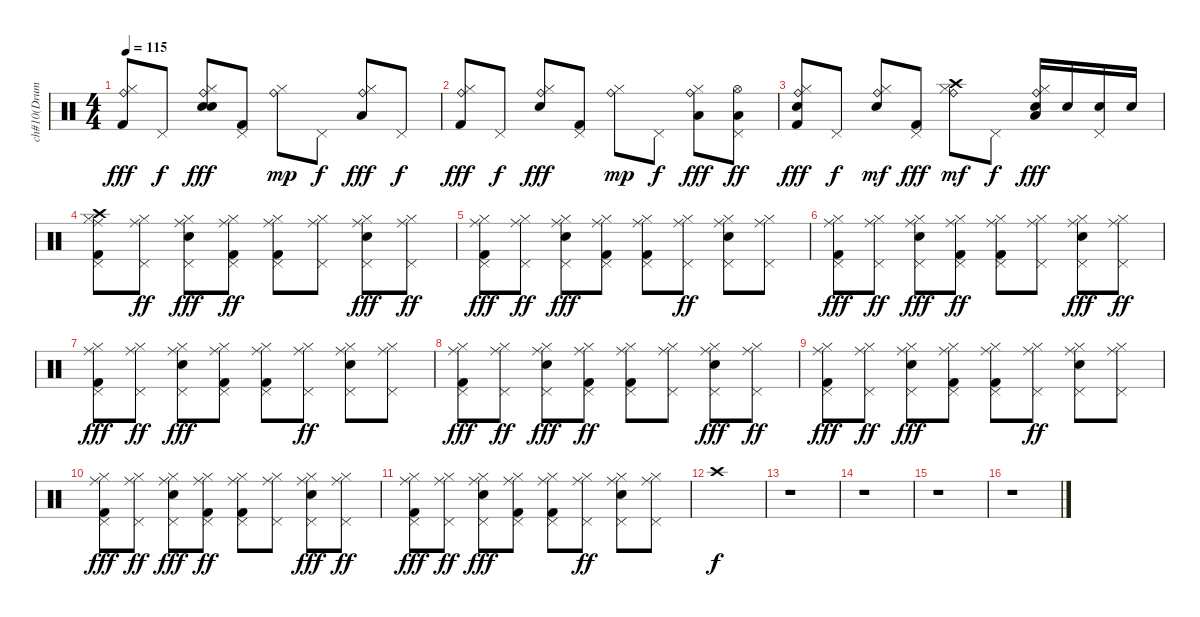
\track ("ch#10(Drums)" "ch#10(Drum") {instrument percussion}
\staff {score}
\articulation defaults
\ts (4 4)
\tempo 115
\clef neutral
\ks c
("Ride (bell)" "Hi-Hat (closed)" "Kick (hit) 2").8{dy fff} "Pedal Hi-Hat (hit)".8{dy f} ("Electric Snare (hit)" "Ride (bell)" "Hi-Hat (closed)" "Electric Snare (hit)").8{dy fff} ("Kick (hit) 2" "Pedal Hi-Hat (hit)").8 ("Ride (bell)" "Hi-Hat (closed)").8{dy mp} "Pedal Hi-Hat (hit)".8{dy f} ("Ride (bell)" "Low Floor Tom (hit)" "Hi-Hat (closed)").8{dy fff} "Pedal Hi-Hat (hit)".8{dy f} |
("Ride (bell)" "Hi-Hat (closed)" "Kick (hit) 2").8{dy fff} "Pedal Hi-Hat (hit)".8{dy f} ("Ride (bell)" "Hi-Hat (closed)" "Electric Snare (hit)").8{dy fff} ("Pedal Hi-Hat (hit)" "Kick (hit) 2").8 ("Ride (bell)" "Hi-Hat (closed)").8{dy mp} "Pedal Hi-Hat (hit)".8{dy f} ("Ride (bell)" "Low Floor Tom (hit)" "Hi-Hat (closed)").8{dy fff} ("Hi-Hat (open)" "Low Floor Tom (hit)" "Pedal Hi-Hat (hit)").8{dy ff} |
("Electric Snare (hit)" "Ride (bell)" "Hi-Hat (closed)" "Kick (hit) 2").8{dy fff} "Pedal Hi-Hat (hit)".8{dy f} ("Electric Snare (hit)" "Ride (bell)" "Hi-Hat (closed)").8{dy mf} ("Kick (hit) 2" "Pedal Hi-Hat (hit)").8{dy fff} ("Crash high (hit)" "Ride (bell)" "Hi-Hat (closed)").8{dy mf} "Pedal Hi-Hat (hit)".8{dy f} ("Electric Snare (hit)" "Ride (bell)" "Low Floor Tom (hit)" "Hi-Hat (closed)").16{dy fff} "Electric Snare (hit)".16 ("Electric Snare (hit)" "Pedal Hi-Hat (hit)").16 "Electric Snare (hit)".16 |
("Crash high (hit)" "Hi-Hat (closed)" "Kick (hit) 2" "Ride (middle)" "Pedal Hi-Hat (hit)").8 ("Pedal Hi-Hat (hit)" "Hi-Hat (closed)" "Ride (middle)").8{dy ff} ("Pedal Hi-Hat (hit)" "Hi-Hat (closed)" "Ride (middle)" "Electric Snare (hit)").8{dy fff} ("Ride (middle)" "Kick (hit) 2" "Hi-Hat (closed)" "Pedal Hi-Hat (hit)").8{dy ff} ("Pedal Hi-Hat (hit)" "Ride (middle)" "Kick (hit) 2" "Hi-Hat (closed)").8 ("Ride (middle)" "Hi-Hat (closed)" "Pedal Hi-Hat (hit)").8 ("Pedal Hi-Hat (hit)" "Ride (middle)" "Hi-Hat (closed)" "Electric Snare (hit)").8{dy fff} ("Ride (middle)" "Hi-Hat (closed)" "Pedal Hi-Hat (hit)").8{dy ff} |
("Pedal Hi-Hat (hit)" "Ride (middle)" "Hi-Hat (closed)" "Kick (hit) 2").8{dy fff} ("Pedal Hi-Hat (hit)" "Ride (middle)" "Hi-Hat (closed)").8{dy ff} ("Pedal Hi-Hat (hit)" "Hi-Hat (closed)" "Electric Snare (hit)" "Ride (middle)").8{dy fff} ("Pedal Hi-Hat (hit)" "Hi-Hat (closed)" "Kick (hit) 2" "Ride (middle)").8 ("Pedal Hi-Hat (hit)" "Hi-Hat (closed)" "Kick (hit) 2" "Ride (middle)").8 ("Pedal Hi-Hat (hit)" "Hi-Hat (closed)" "Ride (middle)").8{dy ff} ("Pedal Hi-Hat (hit)" "Electric Snare (hit)" "Hi-Hat (closed)" "Ride (middle)").8 ("Pedal Hi-Hat (hit)" "Hi-Hat (closed)" "Ride (middle)").8 |
("Hi-Hat (closed)" "Kick (hit) 2" "Ride (middle)" "Pedal Hi-Hat (hit)").8{dy fff} ("Pedal Hi-Hat (hit)" "Hi-Hat (closed)" "Ride (middle)").8{dy ff} ("Pedal Hi-Hat (hit)" "Hi-Hat (closed)" "Ride (middle)" "Electric Snare (hit)").8{dy fff} ("Ride (middle)" "Kick (hit) 2" "Hi-Hat (closed)" "Pedal Hi-Hat (hit)").8{dy ff} ("Pedal Hi-Hat (hit)" "Ride (middle)" "Kick (hit) 2" "Hi-Hat (closed)").8 ("Ride (middle)" "Hi-Hat (closed)" "Pedal Hi-Hat (hit)").8 ("Pedal Hi-Hat (hit)" "Ride (middle)" "Hi-Hat (closed)" "Electric Snare (hit)").8{dy fff} ("Ride (middle)" "Hi-Hat (closed)" "Pedal Hi-Hat (hit)").8{dy ff} |
("Pedal Hi-Hat (hit)" "Ride (middle)" "Hi-Hat (closed)" "Kick (hit) 2").8{dy fff} ("Pedal Hi-Hat (hit)" "Ride (middle)" "Hi-Hat (closed)").8{dy ff} ("Pedal Hi-Hat (hit)" "Hi-Hat (closed)" "Electric Snare (hit)" "Ride (middle)").8{dy fff} ("Pedal Hi-Hat (hit)" "Hi-Hat (closed)" "Kick (hit) 2" "Ride (middle)").8 ("Pedal Hi-Hat (hit)" "Hi-Hat (closed)" "Kick (hit) 2" "Ride (middle)").8 ("Pedal Hi-Hat (hit)" "Hi-Hat (closed)" "Ride (middle)").8{dy ff} ("Pedal Hi-Hat (hit)" "Electric Snare (hit)" "Hi-Hat (closed)" "Ride (middle)").8 ("Pedal Hi-Hat (hit)" "Hi-Hat (closed)" "Ride (middle)").8 |
("Hi-Hat (closed)" "Kick (hit) 2" "Ride (middle)" "Pedal Hi-Hat (hit)").8{dy fff} ("Pedal Hi-Hat (hit)" "Hi-Hat (closed)" "Ride (middle)").8{dy ff} ("Pedal Hi-Hat (hit)" "Hi-Hat (closed)" "Ride (middle)" "Electric Snare (hit)").8{dy fff} ("Ride (middle)" "Kick (hit) 2" "Hi-Hat (closed)" "Pedal Hi-Hat (hit)").8{dy ff} ("Pedal Hi-Hat (hit)" "Ride (middle)" "Kick (hit) 2" "Hi-Hat (closed)").8 ("Ride (middle)" "Hi-Hat (closed)" "Pedal Hi-Hat (hit)").8 ("Pedal Hi-Hat (hit)" "Ride (middle)" "Hi-Hat (closed)" "Electric Snare (hit)").8{dy fff} ("Ride (middle)" "Hi-Hat (closed)" "Pedal Hi-Hat (hit)").8{dy ff} |
("Pedal Hi-Hat (hit)" "Ride (middle)" "Hi-Hat (closed)" "Kick (hit) 2").8{dy fff} ("Pedal Hi-Hat (hit)" "Ride (middle)" "Hi-Hat (closed)").8{dy ff} ("Pedal Hi-Hat (hit)" "Hi-Hat (closed)" "Electric Snare (hit)" "Ride (middle)").8{dy fff} ("Pedal Hi-Hat (hit)" "Hi-Hat (closed)" "Kick (hit) 2" "Ride (middle)").8 ("Pedal Hi-Hat (hit)" "Hi-Hat (closed)" "Kick (hit) 2" "Ride (middle)").8 ("Pedal Hi-Hat (hit)" "Hi-Hat (closed)" "Ride (middle)").8{dy ff} ("Pedal Hi-Hat (hit)" "Electric Snare (hit)" "Hi-Hat (closed)" "Ride (middle)").8 ("Pedal Hi-Hat (hit)" "Hi-Hat (closed)" "Ride (middle)").8 |
("Hi-Hat (closed)" "Kick (hit) 2" "Ride (middle)" "Pedal Hi-Hat (hit)").8{dy fff} ("Pedal Hi-Hat (hit)" "Hi-Hat (closed)" "Ride (middle)").8{dy ff} ("Pedal Hi-Hat (hit)" "Hi-Hat (closed)" "Ride (middle)" "Electric Snare (hit)").8{dy fff} ("Ride (middle)" "Kick (hit) 2" "Hi-Hat (closed)" "Pedal Hi-Hat (hit)").8{dy ff} ("Pedal Hi-Hat (hit)" "Ride (middle)" "Kick (hit) 2" "Hi-Hat (closed)").8 ("Ride (middle)" "Hi-Hat (closed)" "Pedal Hi-Hat (hit)").8 ("Pedal Hi-Hat (hit)" "Ride (middle)" "Hi-Hat (closed)" "Electric Snare (hit)").8{dy fff} ("Ride (middle)" "Hi-Hat (closed)" "Pedal Hi-Hat (hit)").8{dy ff} |
("Pedal Hi-Hat (hit)" "Ride (middle)" "Hi-Hat (closed)" "Kick (hit) 2").8{dy fff} ("Pedal Hi-Hat (hit)" "Ride (middle)" "Hi-Hat (closed)").8{dy ff} ("Pedal Hi-Hat (hit)" "Hi-Hat (closed)" "Electric Snare (hit)" "Ride (middle)").8{dy fff} ("Pedal Hi-Hat (hit)" "Hi-Hat (closed)" "Kick (hit) 2" "Ride (middle)").8 ("Pedal Hi-Hat (hit)" "Hi-Hat (closed)" "Kick (hit) 2" "Ride (middle)").8 ("Pedal Hi-Hat (hit)" "Hi-Hat (closed)" "Ride (middle)").8{dy ff} ("Pedal Hi-Hat (hit)" "Electric Snare (hit)" "Hi-Hat (closed)" "Ride (middle)").8 ("Pedal Hi-Hat (hit)" "Hi-Hat (closed)" "Ride (middle)").8 |
"Crash high (hit)".1{dy f} |
r.1 |
r.1 |
r.1 |
r.1
